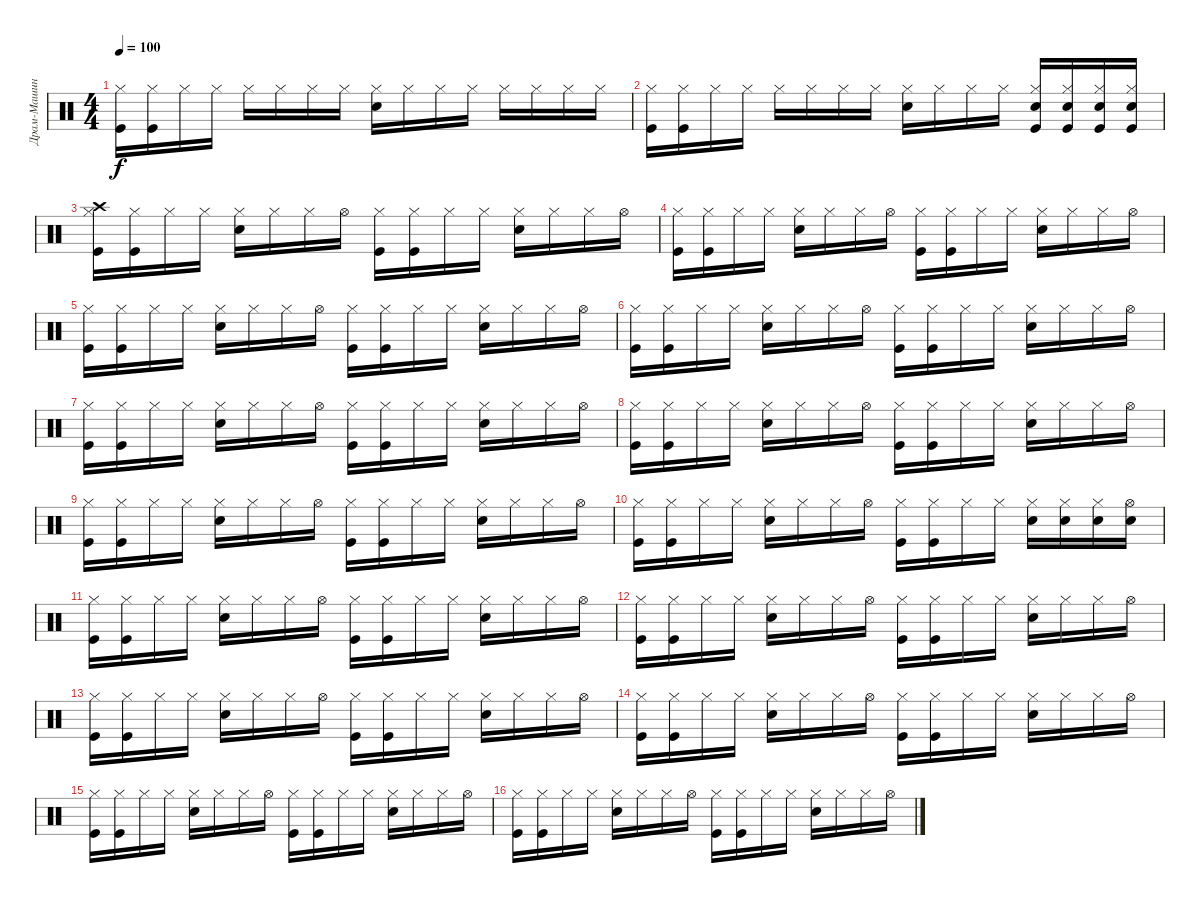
\track ("Драм-Машина" "Драм-Машин") {instrument percussion}
\staff {score}
\articulation defaults
\ts (4 4)
\tempo 100
\clef neutral
\ks c
("Kick (hit)" "Hi-Hat (closed)").16{dy f} ("Kick (hit)" "Hi-Hat (closed)").16 "Hi-Hat (closed)".16 "Hi-Hat (closed)".16 "Hi-Hat (closed)".16 "Hi-Hat (closed)".16 "Hi-Hat (closed)".16 "Hi-Hat (closed)".16 ("Electric Snare (hit)" "Hi-Hat (closed)").16 "Hi-Hat (closed)".16 "Hi-Hat (closed)".16 "Hi-Hat (closed)".16 "Hi-Hat (closed)".16 "Hi-Hat (closed)".16 "Hi-Hat (closed)".16 "Hi-Hat (closed)".16 |
("Kick (hit)" "Hi-Hat (closed)").16 ("Kick (hit)" "Hi-Hat (closed)").16 "Hi-Hat (closed)".16 "Hi-Hat (closed)".16 "Hi-Hat (closed)".16 "Hi-Hat (closed)".16 "Hi-Hat (closed)".16 "Hi-Hat (closed)".16 ("Electric Snare (hit)" "Hi-Hat (closed)").16 "Hi-Hat (closed)".16 "Hi-Hat (closed)".16 "Hi-Hat (closed)".16 ("Kick (hit)" "Electric Snare (hit)" "Hi-Hat (closed)").16 ("Kick (hit)" "Electric Snare (hit)" "Hi-Hat (closed)").16 ("Kick (hit)" "Electric Snare (hit)" "Hi-Hat (closed)").16 ("Kick (hit)" "Electric Snare (hit)" "Hi-Hat (closed)").16 |
("Crash high (hit)" "Kick (hit)" "Hi-Hat (closed)").16 ("Kick (hit)" "Hi-Hat (closed)").16 "Hi-Hat (closed)".16 "Hi-Hat (closed)".16 ("Hi-Hat (closed)" "Electric Snare (hit)").16 "Hi-Hat (closed)".16 "Hi-Hat (closed)".16 "Hi-Hat (open)".16 ("Kick (hit)" "Hi-Hat (closed)").16 ("Kick (hit)" "Hi-Hat (closed)").16 "Hi-Hat (closed)".16 "Hi-Hat (closed)".16 ("Hi-Hat (closed)" "Electric Snare (hit)").16 "Hi-Hat (closed)".16 "Hi-Hat (closed)".16 "Hi-Hat (open)".16 |
("Kick (hit)" "Hi-Hat (closed)").16 ("Kick (hit)" "Hi-Hat (closed)").16 "Hi-Hat (closed)".16 "Hi-Hat (closed)".16 ("Hi-Hat (closed)" "Electric Snare (hit)").16 "Hi-Hat (closed)".16 "Hi-Hat (closed)".16 "Hi-Hat (open)".16 ("Kick (hit)" "Hi-Hat (closed)").16 ("Kick (hit)" "Hi-Hat (closed)").16 "Hi-Hat (closed)".16 "Hi-Hat (closed)".16 ("Hi-Hat (closed)" "Electric Snare (hit)").16 "Hi-Hat (closed)".16 "Hi-Hat (closed)".16 "Hi-Hat (open)".16 |
("Kick (hit)" "Hi-Hat (closed)").16 ("Kick (hit)" "Hi-Hat (closed)").16 "Hi-Hat (closed)".16 "Hi-Hat (closed)".16 ("Hi-Hat (closed)" "Electric Snare (hit)").16 "Hi-Hat (closed)".16 "Hi-Hat (closed)".16 "Hi-Hat (open)".16 ("Kick (hit)" "Hi-Hat (closed)").16 ("Kick (hit)" "Hi-Hat (closed)").16 "Hi-Hat (closed)".16 "Hi-Hat (closed)".16 ("Hi-Hat (closed)" "Electric Snare (hit)").16 "Hi-Hat (closed)".16 "Hi-Hat (closed)".16 "Hi-Hat (open)".16 |
("Kick (hit)" "Hi-Hat (closed)").16 ("Kick (hit)" "Hi-Hat (closed)").16 "Hi-Hat (closed)".16 "Hi-Hat (closed)".16 ("Hi-Hat (closed)" "Electric Snare (hit)").16 "Hi-Hat (closed)".16 "Hi-Hat (closed)".16 "Hi-Hat (open)".16 ("Kick (hit)" "Hi-Hat (closed)").16 ("Kick (hit)" "Hi-Hat (closed)").16 "Hi-Hat (closed)".16 "Hi-Hat (closed)".16 ("Hi-Hat (closed)" "Electric Snare (hit)").16 "Hi-Hat (closed)".16 "Hi-Hat (closed)".16 "Hi-Hat (open)".16 |
("Kick (hit)" "Hi-Hat (closed)").16 ("Kick (hit)" "Hi-Hat (closed)").16 "Hi-Hat (closed)".16 "Hi-Hat (closed)".16 ("Hi-Hat (closed)" "Electric Snare (hit)").16 "Hi-Hat (closed)".16 "Hi-Hat (closed)".16 "Hi-Hat (open)".16 ("Kick (hit)" "Hi-Hat (closed)").16 ("Kick (hit)" "Hi-Hat (closed)").16 "Hi-Hat (closed)".16 "Hi-Hat (closed)".16 ("Hi-Hat (closed)" "Electric Snare (hit)").16 "Hi-Hat (closed)".16 "Hi-Hat (closed)".16 "Hi-Hat (open)".16 |
("Kick (hit)" "Hi-Hat (closed)").16 ("Kick (hit)" "Hi-Hat (closed)").16 "Hi-Hat (closed)".16 "Hi-Hat (closed)".16 ("Hi-Hat (closed)" "Electric Snare (hit)").16 "Hi-Hat (closed)".16 "Hi-Hat (closed)".16 "Hi-Hat (open)".16 ("Kick (hit)" "Hi-Hat (closed)").16 ("Kick (hit)" "Hi-Hat (closed)").16 "Hi-Hat (closed)".16 "Hi-Hat (closed)".16 ("Hi-Hat (closed)" "Electric Snare (hit)").16 "Hi-Hat (closed)".16 "Hi-Hat (closed)".16 "Hi-Hat (open)".16 |
("Kick (hit)" "Hi-Hat (closed)").16 ("Kick (hit)" "Hi-Hat (closed)").16 "Hi-Hat (closed)".16 "Hi-Hat (closed)".16 ("Hi-Hat (closed)" "Electric Snare (hit)").16 "Hi-Hat (closed)".16 "Hi-Hat (closed)".16 "Hi-Hat (open)".16 ("Kick (hit)" "Hi-Hat (closed)").16 ("Kick (hit)" "Hi-Hat (closed)").16 "Hi-Hat (closed)".16 "Hi-Hat (closed)".16 ("Hi-Hat (closed)" "Electric Snare (hit)").16 "Hi-Hat (closed)".16 "Hi-Hat (closed)".16 "Hi-Hat (open)".16 |
("Kick (hit)" "Hi-Hat (closed)").16 ("Kick (hit)" "Hi-Hat (closed)").16 "Hi-Hat (closed)".16 "Hi-Hat (closed)".16 ("Hi-Hat (closed)" "Electric Snare (hit)").16 "Hi-Hat (closed)".16 "Hi-Hat (closed)".16 "Hi-Hat (open)".16 ("Kick (hit)" "Hi-Hat (closed)").16 ("Kick (hit)" "Hi-Hat (closed)").16 "Hi-Hat (closed)".16 "Hi-Hat (closed)".16 ("Hi-Hat (closed)" "Electric Snare (hit)").16 ("Electric Snare (hit)" "Hi-Hat (closed)").16 ("Electric Snare (hit)" "Hi-Hat (closed)").16 ("Electric Snare (hit)" "Hi-Hat (open)").16 |
("Kick (hit)" "Hi-Hat (closed)").16 ("Kick (hit)" "Hi-Hat (closed)").16 "Hi-Hat (closed)".16 "Hi-Hat (closed)".16 ("Hi-Hat (closed)" "Electric Snare (hit)").16 "Hi-Hat (closed)".16 "Hi-Hat (closed)".16 "Hi-Hat (open)".16 ("Kick (hit)" "Hi-Hat (closed)").16 ("Kick (hit)" "Hi-Hat (closed)").16 "Hi-Hat (closed)".16 "Hi-Hat (closed)".16 ("Hi-Hat (closed)" "Electric Snare (hit)").16 "Hi-Hat (closed)".16 "Hi-Hat (closed)".16 "Hi-Hat (open)".16 |
("Kick (hit)" "Hi-Hat (closed)").16 ("Kick (hit)" "Hi-Hat (closed)").16 "Hi-Hat (closed)".16 "Hi-Hat (closed)".16 ("Hi-Hat (closed)" "Electric Snare (hit)").16 "Hi-Hat (closed)".16 "Hi-Hat (closed)".16 "Hi-Hat (open)".16 ("Kick (hit)" "Hi-Hat (closed)").16 ("Kick (hit)" "Hi-Hat (closed)").16 "Hi-Hat (closed)".16 "Hi-Hat (closed)".16 ("Hi-Hat (closed)" "Electric Snare (hit)").16 "Hi-Hat (closed)".16 "Hi-Hat (closed)".16 "Hi-Hat (open)".16 |
("Kick (hit)" "Hi-Hat (closed)").16 ("Kick (hit)" "Hi-Hat (closed)").16 "Hi-Hat (closed)".16 "Hi-Hat (closed)".16 ("Hi-Hat (closed)" "Electric Snare (hit)").16 "Hi-Hat (closed)".16 "Hi-Hat (closed)".16 "Hi-Hat (open)".16 ("Kick (hit)" "Hi-Hat (closed)").16 ("Kick (hit)" "Hi-Hat (closed)").16 "Hi-Hat (closed)".16 "Hi-Hat (closed)".16 ("Hi-Hat (closed)" "Electric Snare (hit)").16 "Hi-Hat (closed)".16 "Hi-Hat (closed)".16 "Hi-Hat (open)".16 |
("Kick (hit)" "Hi-Hat (closed)").16 ("Kick (hit)" "Hi-Hat (closed)").16 "Hi-Hat (closed)".16 "Hi-Hat (closed)".16 ("Hi-Hat (closed)" "Electric Snare (hit)").16 "Hi-Hat (closed)".16 "Hi-Hat (closed)".16 "Hi-Hat (open)".16 ("Kick (hit)" "Hi-Hat (closed)").16 ("Kick (hit)" "Hi-Hat (closed)").16 "Hi-Hat (closed)".16 "Hi-Hat (closed)".16 ("Hi-Hat (closed)" "Electric Snare (hit)").16 "Hi-Hat (closed)".16 "Hi-Hat (closed)".16 "Hi-Hat (open)".16 |
("Kick (hit)" "Hi-Hat (closed)").16 ("Kick (hit)" "Hi-Hat (closed)").16 "Hi-Hat (closed)".16 "Hi-Hat (closed)".16 ("Hi-Hat (closed)" "Electric Snare (hit)").16 "Hi-Hat (closed)".16 "Hi-Hat (closed)".16 "Hi-Hat (open)".16 ("Kick (hit)" "Hi-Hat (closed)").16 ("Kick (hit)" "Hi-Hat (closed)").16 "Hi-Hat (closed)".16 "Hi-Hat (closed)".16 ("Hi-Hat (closed)" "Electric Snare (hit)").16 "Hi-Hat (closed)".16 "Hi-Hat (closed)".16 "Hi-Hat (open)".16 |
("Kick (hit)" "Hi-Hat (closed)").16 ("Kick (hit)" "Hi-Hat (closed)").16 "Hi-Hat (closed)".16 "Hi-Hat (closed)".16 ("Hi-Hat (closed)" "Electric Snare (hit)").16 "Hi-Hat (closed)".16 "Hi-Hat (closed)".16 "Hi-Hat (open)".16 ("Kick (hit)" "Hi-Hat (closed)").16 ("Kick (hit)" "Hi-Hat (closed)").16 "Hi-Hat (closed)".16 "Hi-Hat (closed)".16 ("Hi-Hat (closed)" "Electric Snare (hit)").16 "Hi-Hat (closed)".16 "Hi-Hat (closed)".16 "Hi-Hat (open)".16
